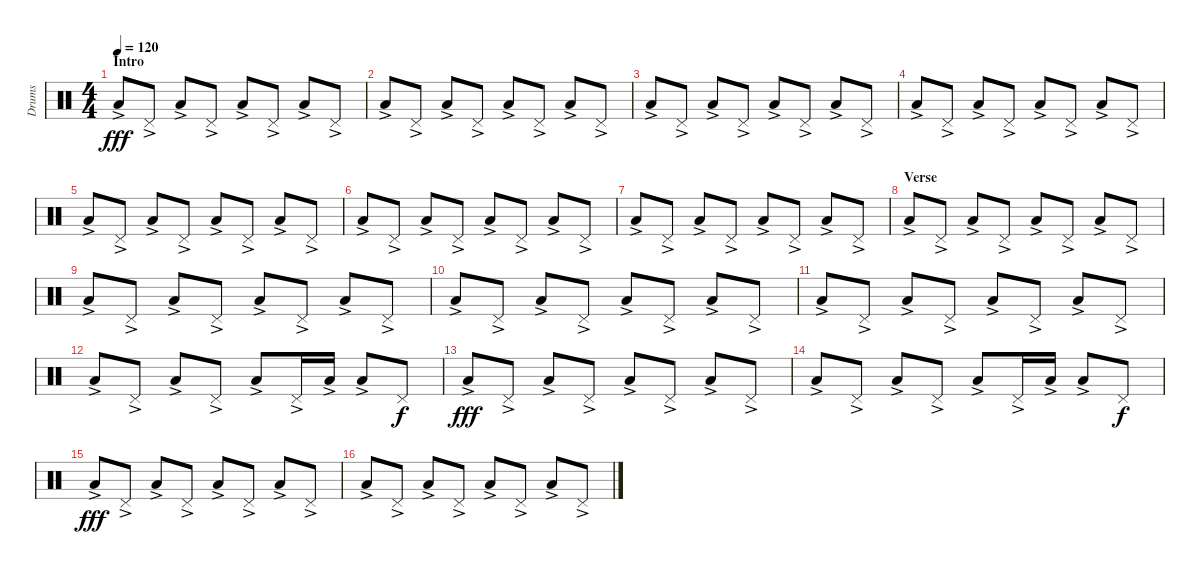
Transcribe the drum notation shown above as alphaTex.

\track ("Drums" "Drums") {instrument percussion}
\staff {score}
\articulation defaults
\ts (4 4)
\section ("" "Intro")
\tempo 120
\clef neutral
\ks c "Low Floor Tom (hit)"{ac}.8{dy fff} "Pedal Hi-Hat (hit)"{ac}.8 "Low Floor Tom (hit)"{ac}.8 "Pedal Hi-Hat (hit)"{ac}.8 "Low Floor Tom (hit)"{ac}.8 "Pedal Hi-Hat (hit)"{ac}.8 "Low Floor Tom (hit)"{ac}.8 "Pedal Hi-Hat (hit)"{ac}.8
|
"Low Floor Tom (hit)"{ac}.8 "Pedal Hi-Hat (hit)"{ac}.8 "Low Floor Tom (hit)"{ac}.8 "Pedal Hi-Hat (hit)"{ac}.8 "Low Floor Tom (hit)"{ac}.8 "Pedal Hi-Hat (hit)"{ac}.8 "Low Floor Tom (hit)"{ac}.8 "Pedal Hi-Hat (hit)"{ac}.8 |
"Low Floor Tom (hit)"{ac}.8 "Pedal Hi-Hat (hit)"{ac}.8 "Low Floor Tom (hit)"{ac}.8 "Pedal Hi-Hat (hit)"{ac}.8 "Low Floor Tom (hit)"{ac}.8 "Pedal Hi-Hat (hit)"{ac}.8 "Low Floor Tom (hit)"{ac}.8 "Pedal Hi-Hat (hit)"{ac}.8 |
"Low Floor Tom (hit)"{ac}.8 "Pedal Hi-Hat (hit)"{ac}.8 "Low Floor Tom (hit)"{ac}.8 "Pedal Hi-Hat (hit)"{ac}.8 "Low Floor Tom (hit)"{ac}.8 "Pedal Hi-Hat (hit)"{ac}.8 "Low Floor Tom (hit)"{ac}.8 "Pedal Hi-Hat (hit)"{ac}.8 |
"Low Floor Tom (hit)"{ac}.8 "Pedal Hi-Hat (hit)"{ac}.8 "Low Floor Tom (hit)"{ac}.8 "Pedal Hi-Hat (hit)"{ac}.8 "Low Floor Tom (hit)"{ac}.8 "Pedal Hi-Hat (hit)"{ac}.8 "Low Floor Tom (hit)"{ac}.8 "Pedal Hi-Hat (hit)"{ac}.8 |
"Low Floor Tom (hit)"{ac}.8 "Pedal Hi-Hat (hit)"{ac}.8 "Low Floor Tom (hit)"{ac}.8 "Pedal Hi-Hat (hit)"{ac}.8 "Low Floor Tom (hit)"{ac}.8 "Pedal Hi-Hat (hit)"{ac}.8 "Low Floor Tom (hit)"{ac}.8 "Pedal Hi-Hat (hit)"{ac}.8 |
"Low Floor Tom (hit)"{ac}.8 "Pedal Hi-Hat (hit)"{ac}.8 "Low Floor Tom (hit)"{ac}.8 "Pedal Hi-Hat (hit)"{ac}.8 "Low Floor Tom (hit)"{ac}.8 "Pedal Hi-Hat (hit)"{ac}.8 "Low Floor Tom (hit)"{ac}.8 "Pedal Hi-Hat (hit)"{ac}.8 |
\section ("" "Verse")
"Low Floor Tom (hit)"{ac}.8 "Pedal Hi-Hat (hit)"{ac}.8 "Low Floor Tom (hit)"{ac}.8 "Pedal Hi-Hat (hit)"{ac}.8 "Low Floor Tom (hit)"{ac}.8 "Pedal Hi-Hat (hit)"{ac}.8 "Low Floor Tom (hit)"{ac}.8 "Pedal Hi-Hat (hit)"{ac}.8 |
"Low Floor Tom (hit)"{ac}.8 "Pedal Hi-Hat (hit)"{ac}.8 "Low Floor Tom (hit)"{ac}.8 "Pedal Hi-Hat (hit)"{ac}.8 "Low Floor Tom (hit)"{ac}.8 "Pedal Hi-Hat (hit)"{ac}.8 "Low Floor Tom (hit)"{ac}.8 "Pedal Hi-Hat (hit)"{ac}.8 |
"Low Floor Tom (hit)"{ac}.8 "Pedal Hi-Hat (hit)"{ac}.8 "Low Floor Tom (hit)"{ac}.8 "Pedal Hi-Hat (hit)"{ac}.8 "Low Floor Tom (hit)"{ac}.8 "Pedal Hi-Hat (hit)"{ac}.8 "Low Floor Tom (hit)"{ac}.8 "Pedal Hi-Hat (hit)"{ac}.8 |
"Low Floor Tom (hit)"{ac}.8 "Pedal Hi-Hat (hit)"{ac}.8 "Low Floor Tom (hit)"{ac}.8 "Pedal Hi-Hat (hit)"{ac}.8 "Low Floor Tom (hit)"{ac}.8 "Pedal Hi-Hat (hit)"{ac}.8 "Low Floor Tom (hit)"{ac}.8 "Pedal Hi-Hat (hit)"{ac}.8 |
"Low Floor Tom (hit)"{ac}.8 "Pedal Hi-Hat (hit)"{ac}.8 "Low Floor Tom (hit)"{ac}.8 "Pedal Hi-Hat (hit)"{ac}.8 "Low Floor Tom (hit)"{ac}.8 "Pedal Hi-Hat (hit)"{ac}.16 "Low Floor Tom (hit)"{ac}.16 "Low Floor Tom (hit)"{ac}.8 "Pedal Hi-Hat (hit)".8{dy f} |
"Low Floor Tom (hit)"{ac}.8{dy fff} "Pedal Hi-Hat (hit)"{ac}.8 "Low Floor Tom (hit)"{ac}.8 "Pedal Hi-Hat (hit)"{ac}.8 "Low Floor Tom (hit)"{ac}.8 "Pedal Hi-Hat (hit)"{ac}.8 "Low Floor Tom (hit)"{ac}.8 "Pedal Hi-Hat (hit)"{ac}.8 |
"Low Floor Tom (hit)"{ac}.8 "Pedal Hi-Hat (hit)"{ac}.8 "Low Floor Tom (hit)"{ac}.8 "Pedal Hi-Hat (hit)"{ac}.8 "Low Floor Tom (hit)"{ac}.8 "Pedal Hi-Hat (hit)"{ac}.16 "Low Floor Tom (hit)"{ac}.16 "Low Floor Tom (hit)"{ac}.8 "Pedal Hi-Hat (hit)".8{dy f} |
"Low Floor Tom (hit)"{ac}.8{dy fff} "Pedal Hi-Hat (hit)"{ac}.8 "Low Floor Tom (hit)"{ac}.8 "Pedal Hi-Hat (hit)"{ac}.8 "Low Floor Tom (hit)"{ac}.8 "Pedal Hi-Hat (hit)"{ac}.8 "Low Floor Tom (hit)"{ac}.8 "Pedal Hi-Hat (hit)"{ac}.8 |
"Low Floor Tom (hit)"{ac}.8 "Pedal Hi-Hat (hit)"{ac}.8 "Low Floor Tom (hit)"{ac}.8 "Pedal Hi-Hat (hit)"{ac}.8 "Low Floor Tom (hit)"{ac}.8 "Pedal Hi-Hat (hit)"{ac}.8 "Low Floor Tom (hit)"{ac}.8 "Pedal Hi-Hat (hit)"{ac}.8
